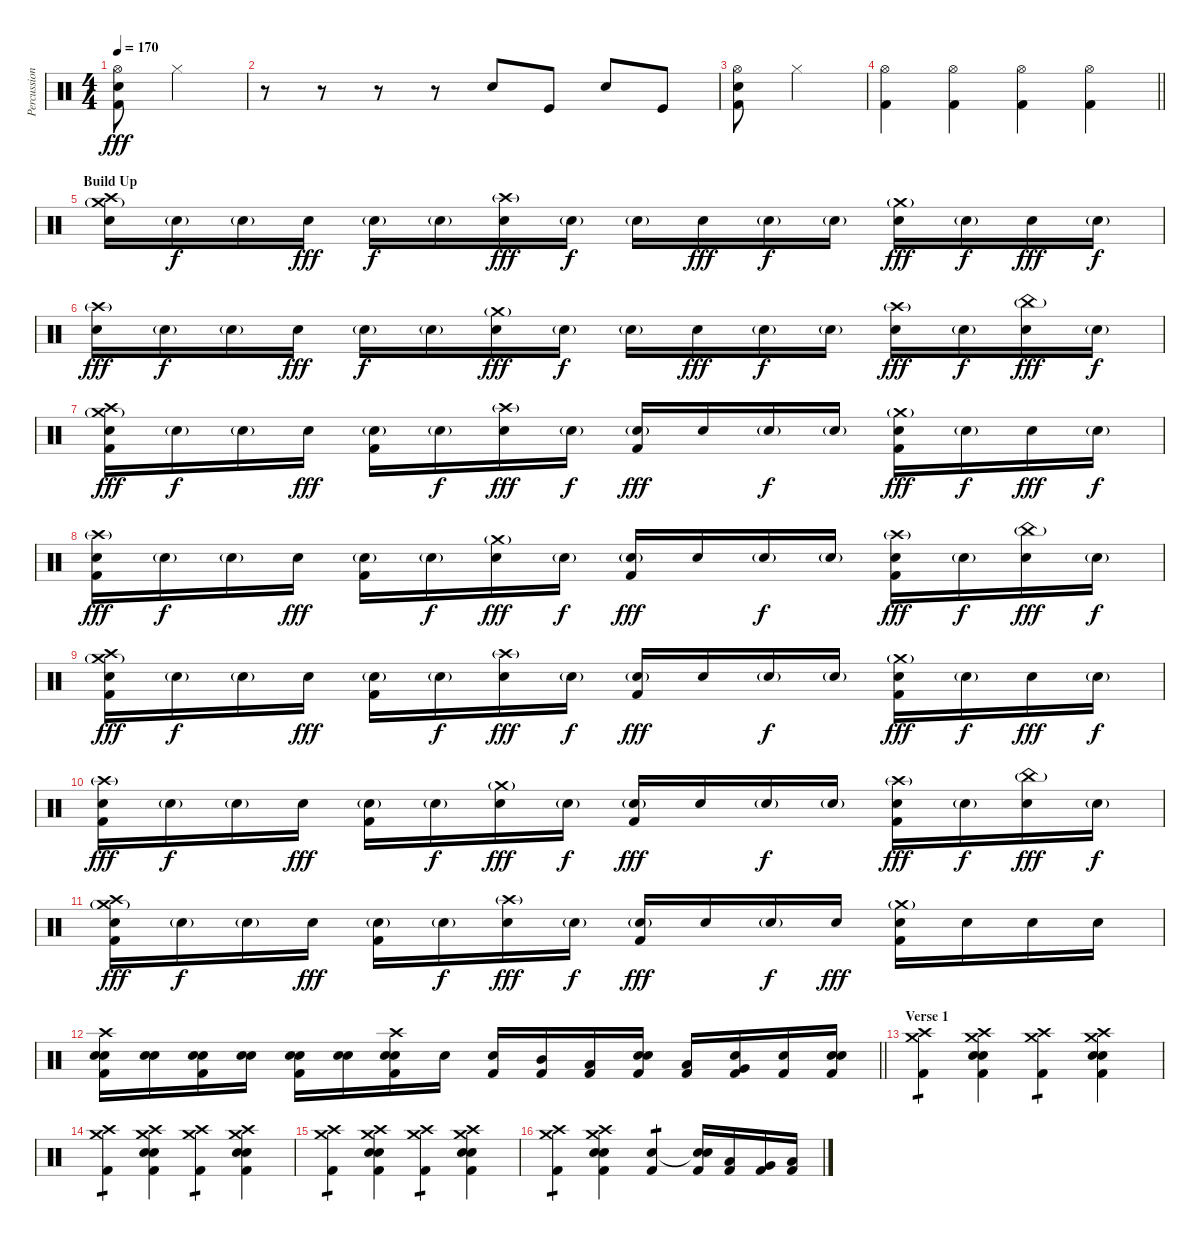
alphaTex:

\track ("Percussion" "Percussion") {instrument percussion}
\staff {score}
\articulation defaults
\ts (4 4)
\tempo 170
\clef neutral
\ks c
("Hi-Hat (open)" "Snare (hit) 2" "Kick (hit) 2").8{dy fff} "Hi-Hat (closed)".4 |
r.8 r.8 r.8 r.8 "Electric Snare (hit)".8 "Kick (hit)".8 "Electric Snare (hit)".8 "Kick (hit)".8 |
("Hi-Hat (open)" "Snare (hit) 2" "Kick (hit) 2").8 "Hi-Hat (closed)".4 |
\barLineRight lightlight
("Hi-Hat (open)" "Kick (hit) 2").4 ("Hi-Hat (open)" "Kick (hit) 2").4 ("Hi-Hat (open)" "Kick (hit) 2").4 ("Hi-Hat (open)" "Kick (hit) 2").4 |
\section ("" "Build Up")
("Crash medium (hit)"{g} "Crash high (hit)" "Electric Snare (hit)").16 "Electric Snare (hit)"{g}.16{dy f} "Electric Snare (hit)"{g}.16 "Electric Snare (hit)".16{dy fff} "Electric Snare (hit)"{g}.16{dy f} "Electric Snare (hit)"{g}.16 ("Crash high (hit)"{g} "Electric Snare (hit)").16{dy fff} "Electric Snare (hit)"{g}.16{dy f} "Electric Snare (hit)"{g}.16 "Electric Snare (hit)".16{dy fff} "Electric Snare (hit)"{g}.16{dy f} "Electric Snare (hit)"{g}.16 ("Crash medium (hit)"{g} "Electric Snare (hit)").16{dy fff} "Electric Snare (hit)"{g}.16{dy f} "Electric Snare (hit)".16{dy fff} "Electric Snare (hit)"{g}.16{dy f} |
("Crash high (hit)"{g} "Electric Snare (hit)").16{dy fff} "Electric Snare (hit)"{g}.16{dy f} "Electric Snare (hit)"{g}.16 "Electric Snare (hit)".16{dy fff} "Electric Snare (hit)"{g}.16{dy f} "Electric Snare (hit)"{g}.16 ("Crash medium (hit)"{g} "Electric Snare (hit)").16{dy fff} "Electric Snare (hit)"{g}.16{dy f} "Electric Snare (hit)"{g}.16 "Electric Snare (hit)".16{dy fff} "Electric Snare (hit)"{g}.16{dy f} "Electric Snare (hit)"{g}.16 ("Crash high (hit)"{g} "Electric Snare (hit)").16{dy fff} "Electric Snare (hit)"{g}.16{dy f} ("China (hit)"{g} "Electric Snare (hit)").16{dy fff} "Electric Snare (hit)"{g}.16{dy f} |
("Crash medium (hit)"{g} "Crash high (hit)" "Electric Snare (hit)" "Kick (hit) 2").16{dy fff} "Electric Snare (hit)"{g}.16{dy f} "Electric Snare (hit)"{g}.16 "Electric Snare (hit)".16{dy fff} ("Electric Snare (hit)"{g} "Kick (hit) 2").16 "Electric Snare (hit)"{g}.16{dy f} ("Crash high (hit)"{g} "Electric Snare (hit)").16{dy fff} "Electric Snare (hit)"{g}.16{dy f} ("Electric Snare (hit)"{g} "Kick (hit) 2").16{dy fff} "Electric Snare (hit)".16 "Electric Snare (hit)"{g}.16{dy f} "Electric Snare (hit)"{g}.16 ("Crash medium (hit)"{g} "Electric Snare (hit)" "Kick (hit) 2").16{dy fff} "Electric Snare (hit)"{g}.16{dy f} "Electric Snare (hit)".16{dy fff} "Electric Snare (hit)"{g}.16{dy f} |
("Crash high (hit)"{g} "Electric Snare (hit)" "Kick (hit) 2").16{dy fff} "Electric Snare (hit)"{g}.16{dy f} "Electric Snare (hit)"{g}.16 "Electric Snare (hit)".16{dy fff} ("Electric Snare (hit)"{g} "Kick (hit) 2").16 "Electric Snare (hit)"{g}.16{dy f} ("Crash medium (hit)"{g} "Electric Snare (hit)").16{dy fff} "Electric Snare (hit)"{g}.16{dy f} ("Electric Snare (hit)"{g} "Kick (hit) 2").16{dy fff} "Electric Snare (hit)".16 "Electric Snare (hit)"{g}.16{dy f} "Electric Snare (hit)"{g}.16 ("Crash high (hit)"{g} "Electric Snare (hit)" "Kick (hit) 2").16{dy fff} "Electric Snare (hit)"{g}.16{dy f} ("China (hit)"{g} "Electric Snare (hit)").16{dy fff} "Electric Snare (hit)"{g}.16{dy f} |
("Crash medium (hit)"{g} "Crash high (hit)" "Electric Snare (hit)" "Kick (hit) 2").16{dy fff} "Electric Snare (hit)"{g}.16{dy f} "Electric Snare (hit)"{g}.16 "Electric Snare (hit)".16{dy fff} ("Electric Snare (hit)"{g} "Kick (hit) 2").16 "Electric Snare (hit)"{g}.16{dy f} ("Crash high (hit)"{g} "Electric Snare (hit)").16{dy fff} "Electric Snare (hit)"{g}.16{dy f} ("Electric Snare (hit)"{g} "Kick (hit) 2").16{dy fff} "Electric Snare (hit)".16 "Electric Snare (hit)"{g}.16{dy f} "Electric Snare (hit)"{g}.16 ("Crash medium (hit)"{g} "Electric Snare (hit)" "Kick (hit) 2").16{dy fff} "Electric Snare (hit)"{g}.16{dy f} "Electric Snare (hit)".16{dy fff} "Electric Snare (hit)"{g}.16{dy f} |
("Crash high (hit)"{g} "Electric Snare (hit)" "Kick (hit) 2").16{dy fff} "Electric Snare (hit)"{g}.16{dy f} "Electric Snare (hit)"{g}.16 "Electric Snare (hit)".16{dy fff} ("Electric Snare (hit)"{g} "Kick (hit) 2").16 "Electric Snare (hit)"{g}.16{dy f} ("Crash medium (hit)"{g} "Electric Snare (hit)").16{dy fff} "Electric Snare (hit)"{g}.16{dy f} ("Electric Snare (hit)"{g} "Kick (hit) 2").16{dy fff} "Electric Snare (hit)".16 "Electric Snare (hit)"{g}.16{dy f} "Electric Snare (hit)"{g}.16 ("Crash high (hit)"{g} "Electric Snare (hit)" "Kick (hit) 2").16{dy fff} "Electric Snare (hit)"{g}.16{dy f} ("China (hit)"{g} "Electric Snare (hit)").16{dy fff} "Electric Snare (hit)"{g}.16{dy f} |
("Crash medium (hit)"{g} "Crash high (hit)" "Electric Snare (hit)" "Kick (hit) 2").16{dy fff} "Electric Snare (hit)"{g}.16{dy f} "Electric Snare (hit)"{g}.16 "Electric Snare (hit)".16{dy fff} ("Electric Snare (hit)"{g} "Kick (hit) 2").16 "Electric Snare (hit)"{g}.16{dy f} ("Crash high (hit)"{g} "Electric Snare (hit)").16{dy fff} "Electric Snare (hit)"{g}.16{dy f} ("Electric Snare (hit)"{g} "Kick (hit) 2").16{dy fff} "Electric Snare (hit)".16 "Electric Snare (hit)"{g}.16{dy f} "Electric Snare (hit)".16{dy fff} ("Crash medium (hit)"{g} "Electric Snare (hit)" "Kick (hit) 2").16 "Electric Snare (hit)".16 "Electric Snare (hit)".16 "Electric Snare (hit)".16 |
\barLineRight lightlight
("Crash high (hit)" "Snare (hit) 2" "Electric Snare (hit)" "Kick (hit) 2").16 ("Snare (hit) 2" "Electric Snare (hit)").16 ("Snare (hit) 2" "Electric Snare (hit)" "Kick (hit) 2").16 ("Snare (hit) 2" "Electric Snare (hit)").16 ("Snare (hit) 2" "Electric Snare (hit)" "Kick (hit) 2").16 ("Snare (hit) 2" "Electric Snare (hit)").16 ("Crash high (hit)" "Snare (hit) 2" "Electric Snare (hit)" "Kick (hit) 2").16 "Snare (hit) 2".16 ("Electric Snare (hit)" "Kick (hit) 2").16 ("Mid Tom (hit)" "Kick (hit) 2").16 ("Low Tom (hit)" "Kick (hit) 2").16 ("Electric Snare (hit)" "Snare (hit) 2" "Kick (hit) 2").16 ("Low Tom (hit)" "Kick (hit) 2").16 ("Very Low Tom (hit)" "Electric Snare (hit)" "Kick (hit) 2").16 ("Electric Snare (hit)" "Kick (hit) 2").16 ("Electric Snare (hit)" "Snare (hit) 2" "Kick (hit) 2").16 |
\section ("" "Verse 1")
("Crash high (hit)" "Crash medium (hit)" "Kick (hit) 2").4{tp 1} ("Crash high (hit)" "Crash medium (hit)" "Electric Snare (hit)" "Snare (hit) 2" "Kick (hit) 2").4 ("Crash high (hit)" "Crash medium (hit)" "Kick (hit) 2").4{tp 1} ("Crash high (hit)" "Crash medium (hit)" "Electric Snare (hit)" "Snare (hit) 2" "Kick (hit) 2").4 |
("Crash high (hit)" "Crash medium (hit)" "Kick (hit) 2").4{tp 1} ("Crash high (hit)" "Crash medium (hit)" "Electric Snare (hit)" "Snare (hit) 2" "Kick (hit) 2").4 ("Crash high (hit)" "Crash medium (hit)" "Kick (hit) 2").4{tp 1} ("Crash high (hit)" "Crash medium (hit)" "Electric Snare (hit)" "Snare (hit) 2" "Kick (hit) 2").4 |
("Crash high (hit)" "Crash medium (hit)" "Kick (hit) 2").4{tp 1} ("Crash high (hit)" "Crash medium (hit)" "Electric Snare (hit)" "Snare (hit) 2" "Kick (hit) 2").4 ("Crash high (hit)" "Crash medium (hit)" "Kick (hit) 2").4{tp 1} ("Crash high (hit)" "Crash medium (hit)" "Electric Snare (hit)" "Snare (hit) 2" "Kick (hit) 2").4 |
("Crash high (hit)" "Crash medium (hit)" "Kick (hit) 2").4{tp 1} ("Crash high (hit)" "Crash medium (hit)" "Electric Snare (hit)" "Snare (hit) 2" "Kick (hit) 2").4 ("Electric Snare (hit)" "Kick (hit) 2").4{tp 1} ("Electric Snare (hit)"{t} "Snare (hit) 2" "Kick (hit) 2").16 ("Low Tom (hit)" "Kick (hit) 2").16 ("Very Low Tom (hit)" "Kick (hit) 2").16 ("Low Floor Tom (hit)" "Kick (hit) 2").16
